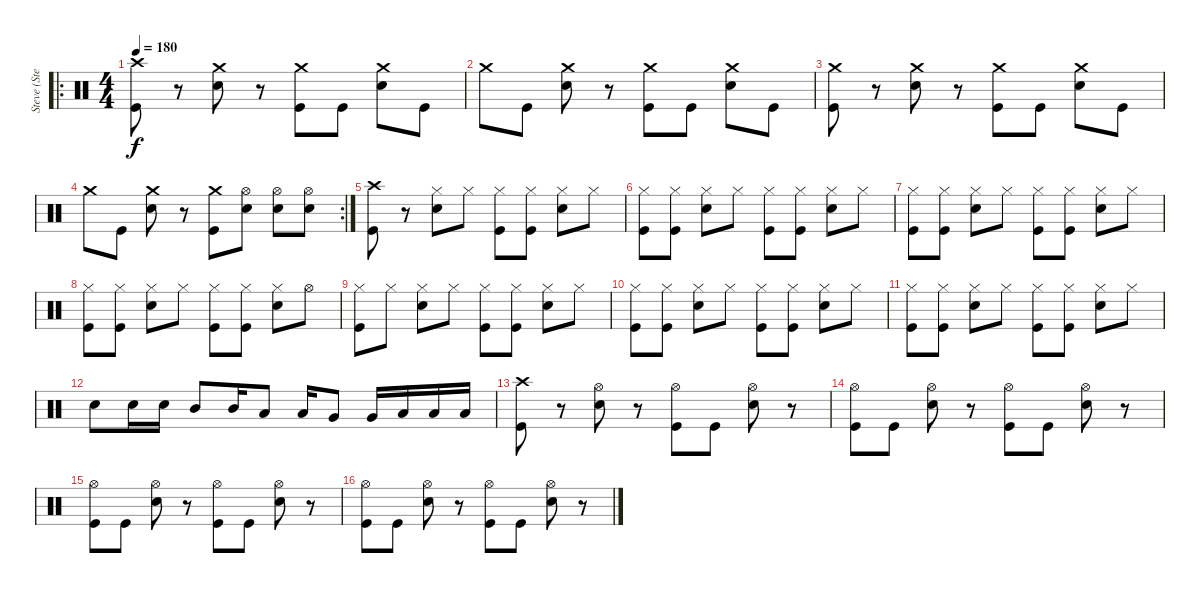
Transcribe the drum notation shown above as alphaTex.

\track ("Steve (Stevo32) - Drums" "Steve (Ste") {instrument percussion}
\staff {score}
\articulation defaults
\ro
\ts (4 4)
\tempo 180
\clef neutral
\ks c
("Crash high (hit)" "Kick (hit)").8{dy f} r.8 ("Crash medium (hit)" "Electric Snare (hit)").8 r.8 ("Crash medium (hit)" "Kick (hit)").8 "Kick (hit)".8 ("Crash medium (hit)" "Electric Snare (hit)").8 "Kick (hit)".8 |
"Crash medium (hit)".8 "Kick (hit)".8 ("Crash medium (hit)" "Electric Snare (hit)").8 r.8 ("Crash medium (hit)" "Kick (hit)").8 "Kick (hit)".8 ("Crash medium (hit)" "Electric Snare (hit)").8 "Kick (hit)".8 |
("Crash medium (hit)" "Kick (hit)").8 r.8 ("Crash medium (hit)" "Electric Snare (hit)").8 r.8 ("Crash medium (hit)" "Kick (hit)").8 "Kick (hit)".8 ("Crash medium (hit)" "Electric Snare (hit)").8 "Kick (hit)".8 |
\rc 2 "Crash medium (hit)".8 "Kick (hit)".8
("Crash medium (hit)" "Electric Snare (hit)").8 r.8 ("Crash medium (hit)" "Kick (hit)").8 ("Hi-Hat (open)" "Electric Snare (hit)").8 ("Hi-Hat (open)" "Electric Snare (hit)").8 ("Hi-Hat (open)" "Electric Snare (hit)").8 |
("Crash high (hit)" "Kick (hit)").8 r.8 ("Hi-Hat (closed)" "Electric Snare (hit)").8 "Hi-Hat (closed)".8 ("Hi-Hat (closed)" "Kick (hit)").8 ("Hi-Hat (closed)" "Kick (hit)").8 ("Hi-Hat (closed)" "Electric Snare (hit)").8 "Hi-Hat (closed)".8 |
("Hi-Hat (closed)" "Kick (hit)").8 ("Hi-Hat (closed)" "Kick (hit)").8 ("Hi-Hat (closed)" "Electric Snare (hit)").8 "Hi-Hat (closed)".8 ("Hi-Hat (closed)" "Kick (hit)").8 ("Hi-Hat (closed)" "Kick (hit)").8 ("Hi-Hat (closed)" "Electric Snare (hit)").8 "Hi-Hat (closed)".8 |
("Hi-Hat (closed)" "Kick (hit)").8 ("Hi-Hat (closed)" "Kick (hit)").8 ("Hi-Hat (closed)" "Electric Snare (hit)").8 "Hi-Hat (closed)".8 ("Hi-Hat (closed)" "Kick (hit)").8 ("Hi-Hat (closed)" "Kick (hit)").8 ("Hi-Hat (closed)" "Electric Snare (hit)").8 "Hi-Hat (closed)".8 |
("Hi-Hat (closed)" "Kick (hit)").8 ("Hi-Hat (closed)" "Kick (hit)").8 ("Hi-Hat (closed)" "Electric Snare (hit)").8 "Hi-Hat (closed)".8 ("Hi-Hat (closed)" "Kick (hit)").8 ("Hi-Hat (closed)" "Kick (hit)").8 ("Hi-Hat (closed)" "Electric Snare (hit)").8 "Hi-Hat (open)".8 |
("Hi-Hat (closed)" "Kick (hit)").8 "Hi-Hat (closed)".8 ("Hi-Hat (closed)" "Electric Snare (hit)").8 "Hi-Hat (closed)".8 ("Hi-Hat (closed)" "Kick (hit)").8 ("Hi-Hat (closed)" "Kick (hit)").8 ("Hi-Hat (closed)" "Electric Snare (hit)").8 "Hi-Hat (closed)".8 |
("Hi-Hat (closed)" "Kick (hit)").8 ("Hi-Hat (closed)" "Kick (hit)").8 ("Hi-Hat (closed)" "Electric Snare (hit)").8 "Hi-Hat (closed)".8 ("Hi-Hat (closed)" "Kick (hit)").8 ("Hi-Hat (closed)" "Kick (hit)").8 ("Hi-Hat (closed)" "Electric Snare (hit)").8 "Hi-Hat (closed)".8 |
("Hi-Hat (closed)" "Kick (hit)").8 ("Hi-Hat (closed)" "Kick (hit)").8 ("Hi-Hat (closed)" "Electric Snare (hit)").8 "Hi-Hat (closed)".8 ("Hi-Hat (closed)" "Kick (hit)").8 ("Hi-Hat (closed)" "Kick (hit)").8 ("Hi-Hat (closed)" "Electric Snare (hit)").8 "Hi-Hat (closed)".8 |
"Electric Snare (hit)".8 "Electric Snare (hit)".16 "Electric Snare (hit)".16 "Mid Tom (hit)".8 "Mid Tom (hit)".16 "Low Tom (hit)".8 "Low Tom (hit)".16 "Very Low Tom (hit)".8 "Very Low Tom (hit)".16 "Low Floor Tom (hit)".16 "Low Floor Tom (hit)".16 "Low Floor Tom (hit)".16 |
("Crash high (hit)" "Kick (hit)").8 r.8 ("Hi-Hat (open)" "Electric Snare (hit)").8 r.8 ("Hi-Hat (open)" "Kick (hit)").8 "Kick (hit)".8 ("Hi-Hat (open)" "Electric Snare (hit)").8 r.8 |
("Hi-Hat (open)" "Kick (hit)").8 "Kick (hit)".8 ("Hi-Hat (open)" "Electric Snare (hit)").8 r.8 ("Hi-Hat (open)" "Kick (hit)").8 "Kick (hit)".8 ("Hi-Hat (open)" "Electric Snare (hit)").8 r.8 |
("Hi-Hat (open)" "Kick (hit)").8 "Kick (hit)".8 ("Hi-Hat (open)" "Electric Snare (hit)").8 r.8 ("Hi-Hat (open)" "Kick (hit)").8 "Kick (hit)".8 ("Hi-Hat (open)" "Electric Snare (hit)").8 r.8 |
("Hi-Hat (open)" "Kick (hit)").8 "Kick (hit)".8 ("Hi-Hat (open)" "Electric Snare (hit)").8 r.8 ("Hi-Hat (open)" "Kick (hit)").8 "Kick (hit)".8 ("Hi-Hat (open)" "Electric Snare (hit)").8 r.8
